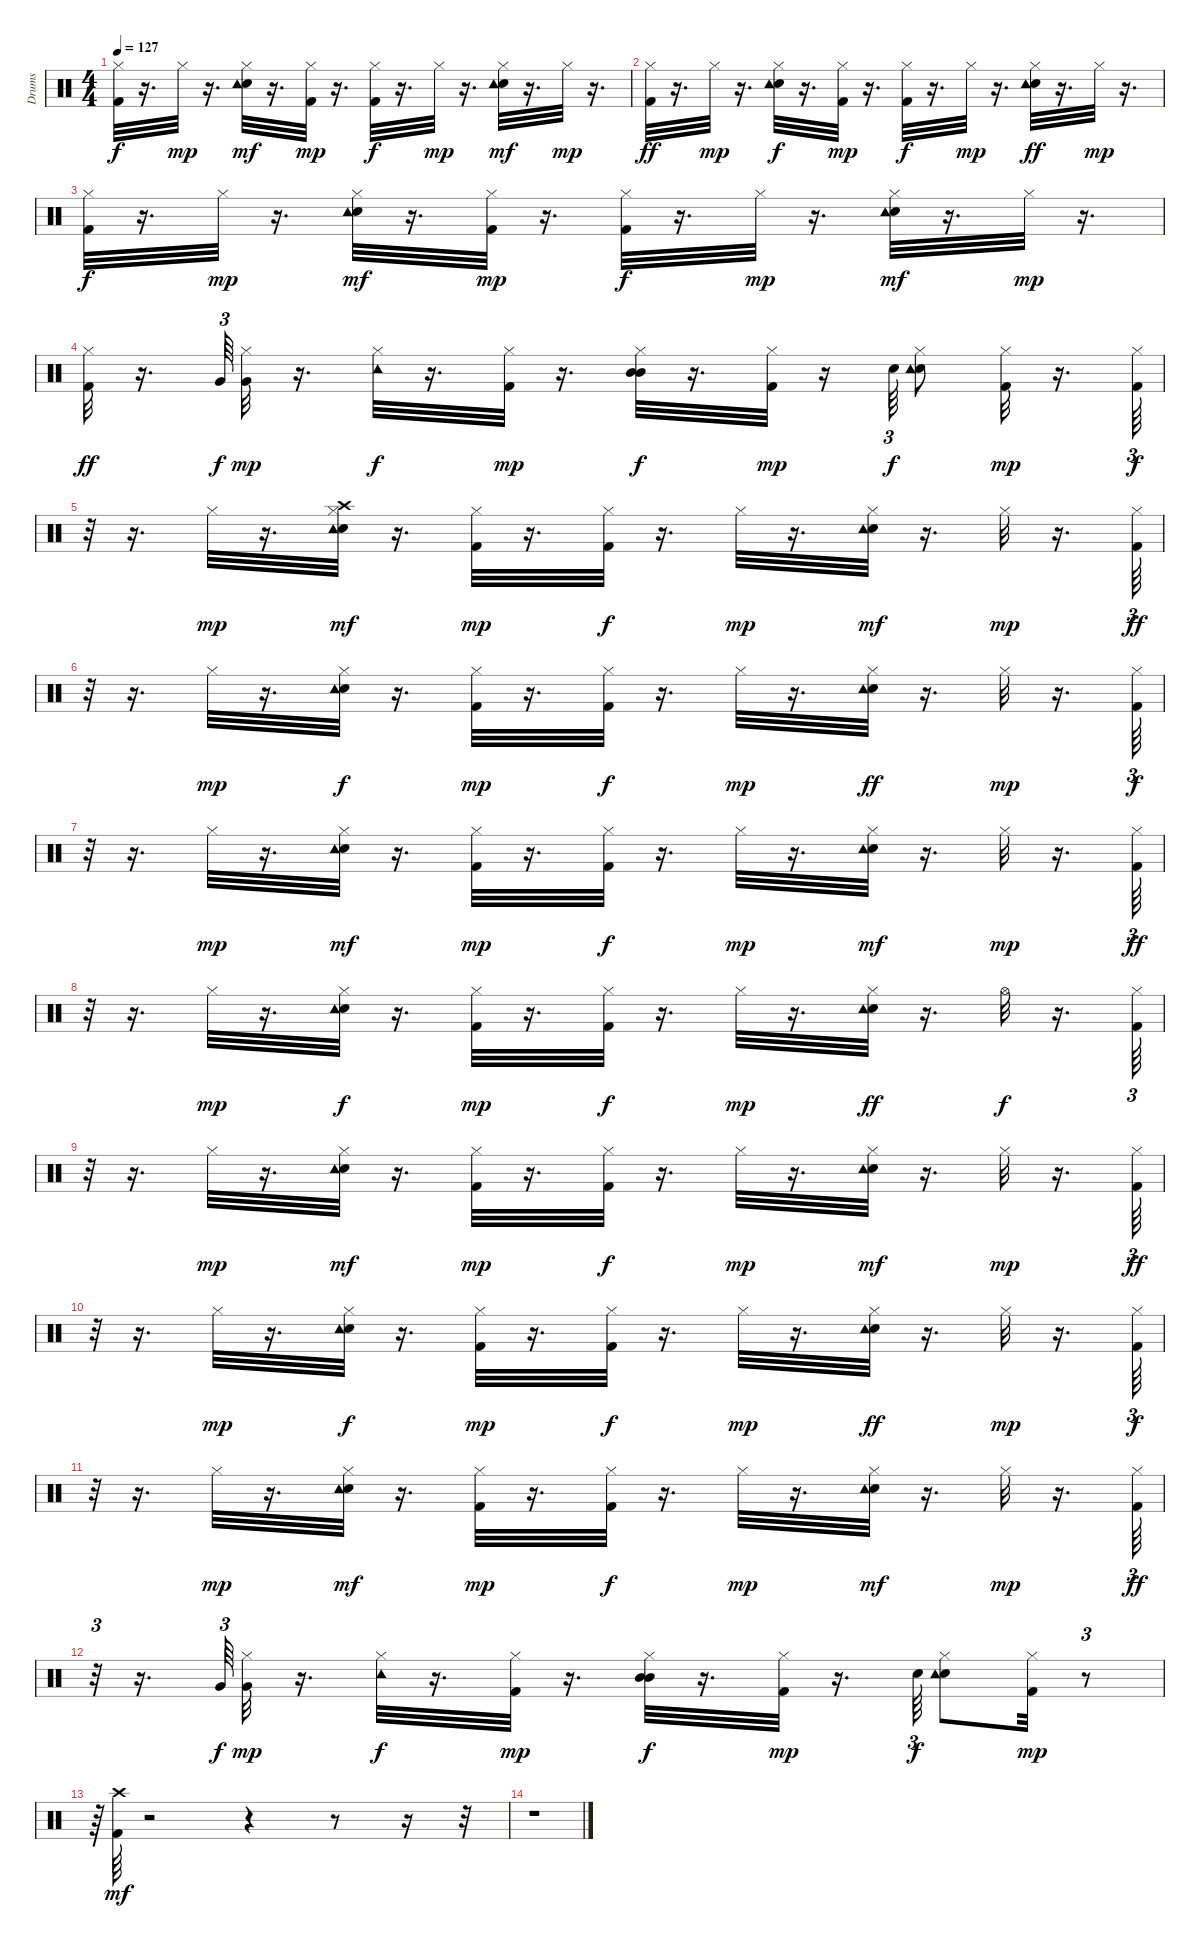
\track ("Drums               " "Drums     ") {instrument percussion}
\staff {score}
\articulation defaults
\ts (4 4)
\tempo 127
\clef neutral
\ks c
("Kick (hit) 2" "Hi-Hat (closed)").32{dy f} r.16{d} "Hi-Hat (closed)".32{dy mp} r.16{d} ("Snare (hit) 2" "Tambourine (hit)" "Hi-Hat (closed)").32{dy mf} r.16{d} ("Kick (hit) 2" "Hi-Hat (closed)").32{dy mp} r.16{d} ("Hi-Hat (closed)" "Kick (hit) 2").32{dy f} r.16{d} "Hi-Hat (closed)".32{dy mp} r.16{d} ("Snare (hit) 2" "Tambourine (hit)" "Hi-Hat (closed)").32{dy mf} r.16{d} "Hi-Hat (closed)".32{dy mp} r.16{d} |
("Kick (hit) 2" "Hi-Hat (closed)").32{dy ff} r.16{d} "Hi-Hat (closed)".32{dy mp} r.16{d} ("Snare (hit) 2" "Tambourine (hit)" "Hi-Hat (closed)").32{dy f} r.16{d} ("Kick (hit) 2" "Hi-Hat (closed)").32{dy mp} r.16{d} ("Kick (hit) 2" "Hi-Hat (closed)").32{dy f} r.16{d} "Hi-Hat (closed)".32{dy mp} r.16{d} ("Snare (hit) 2" "Hi-Hat (closed)" "Tambourine (hit)").32{dy ff} r.16{d} "Hi-Hat (closed)".32{dy mp} r.16{d} |
("Kick (hit) 2" "Hi-Hat (closed)").32{dy f} r.16{d} "Hi-Hat (closed)".32{dy mp} r.16{d} ("Snare (hit) 2" "Hi-Hat (closed)" "Tambourine (hit)").32{dy mf} r.16{d} ("Kick (hit) 2" "Hi-Hat (closed)").32{dy mp} r.16{d} ("Kick (hit) 2" "Hi-Hat (closed)").32{dy f} r.16{d} "Hi-Hat (closed)".32{dy mp} r.16{d} ("Snare (hit) 2" "Tambourine (hit)" "Hi-Hat (closed)").32{dy mf} r.16{d} "Hi-Hat (closed)".32{dy mp} r.16{d} |
("Kick (hit) 2" "Hi-Hat (closed)").32{dy ff} r.16{d} "Very Low Tom (hit)".64{tu (3 2) dy f} ("Hi-Hat (closed)" "Very Low Tom (hit)").32{dy mp} r.16{d} ("Hi-Hat (closed)" "Tambourine (hit)").32{dy f} r.16{d} ("Kick (hit) 2" "Hi-Hat (closed)").32{dy mp} r.16{d} ("Mid Tom (hit)" "Hi-Hat (closed)" "Mid Tom (hit)").32{dy f} r.16{d} ("Kick (hit) 2" "Hi-Hat (closed)").32{dy mp} r.16 "Snare (hit) 2".64{tu (3 2) dy f} ("Snare (hit) 2" "Tambourine (hit)" "Hi-Hat (closed)").8 ("Kick (hit) 2" "Hi-Hat (closed)").32{dy mp} r.16{d} ("Kick (hit) 2" "Hi-Hat (closed)").64{tu (3 2) dy f} |
r.32{tu (3 2)} r.16{d} "Hi-Hat (closed)".32{dy mp} r.16{d} ("Snare (hit) 2" "Hi-Hat (closed)" "Crash high (hit)" "Tambourine (hit)").32{dy mf} r.16{d} ("Kick (hit) 2" "Hi-Hat (closed)").32{dy mp} r.16{d} ("Kick (hit) 2" "Hi-Hat (closed)").32{dy f} r.16{d} "Hi-Hat (closed)".32{dy mp} r.16{d} ("Snare (hit) 2" "Tambourine (hit)" "Hi-Hat (closed)").32{dy mf} r.16{d} "Hi-Hat (closed)".32{dy mp} r.16{d} ("Kick (hit) 2" "Hi-Hat (closed)").64{tu (3 2) dy ff} |
r.32{tu (3 2)} r.16{d} "Hi-Hat (closed)".32{dy mp} r.16{d} ("Snare (hit) 2" "Tambourine (hit)" "Hi-Hat (closed)").32{dy f} r.16{d} ("Kick (hit) 2" "Hi-Hat (closed)").32{dy mp} r.16{d} ("Kick (hit) 2" "Hi-Hat (closed)").32{dy f} r.16{d} "Hi-Hat (closed)".32{dy mp} r.16{d} ("Snare (hit) 2" "Tambourine (hit)" "Hi-Hat (closed)").32{dy ff} r.16{d} "Hi-Hat (closed)".32{dy mp} r.16{d} ("Hi-Hat (closed)" "Kick (hit) 2").64{tu (3 2) dy f} |
r.32{tu (3 2)} r.16{d} "Hi-Hat (closed)".32{dy mp} r.16{d} ("Snare (hit) 2" "Tambourine (hit)" "Hi-Hat (closed)").32{dy mf} r.16{d} ("Kick (hit) 2" "Hi-Hat (closed)").32{dy mp} r.16{d} ("Kick (hit) 2" "Hi-Hat (closed)").32{dy f} r.16{d} "Hi-Hat (closed)".32{dy mp} r.16{d} ("Snare (hit) 2" "Tambourine (hit)" "Hi-Hat (closed)").32{dy mf} r.16{d} "Hi-Hat (closed)".32{dy mp} r.16{d} ("Kick (hit) 2" "Hi-Hat (closed)").64{tu (3 2) dy ff} |
r.32{tu (3 2)} r.16{d} "Hi-Hat (closed)".32{dy mp} r.16{d} ("Snare (hit) 2" "Hi-Hat (closed)" "Tambourine (hit)").32{dy f} r.16{d} ("Hi-Hat (closed)" "Kick (hit) 2").32{dy mp} r.16{d} ("Kick (hit) 2" "Hi-Hat (closed)").32{dy f} r.16{d} "Hi-Hat (closed)".32{dy mp} r.16{d} ("Snare (hit) 2" "Hi-Hat (closed)" "Tambourine (hit)").32{dy ff} r.16{d} "Hi-Hat (open)".32{dy f} r.16{d} ("Kick (hit) 2" "Hi-Hat (closed)").64{tu (3 2)} |
r.32{tu (3 2)} r.16{d} "Hi-Hat (closed)".32{dy mp} r.16{d} ("Snare (hit) 2" "Tambourine (hit)" "Hi-Hat (closed)").32{dy mf} r.16{d} ("Kick (hit) 2" "Hi-Hat (closed)").32{dy mp} r.16{d} ("Kick (hit) 2" "Hi-Hat (closed)").32{dy f} r.16{d} "Hi-Hat (closed)".32{dy mp} r.16{d} ("Hi-Hat (closed)" "Snare (hit) 2" "Tambourine (hit)").32{dy mf} r.16{d} "Hi-Hat (closed)".32{dy mp} r.16{d} ("Kick (hit) 2" "Hi-Hat (closed)").64{tu (3 2) dy ff} |
r.32{tu (3 2)} r.16{d} "Hi-Hat (closed)".32{dy mp} r.16{d} ("Snare (hit) 2" "Tambourine (hit)" "Hi-Hat (closed)").32{dy f} r.16{d} ("Kick (hit) 2" "Hi-Hat (closed)").32{dy mp} r.16{d} ("Kick (hit) 2" "Hi-Hat (closed)").32{dy f} r.16{d} "Hi-Hat (closed)".32{dy mp} r.16{d} ("Snare (hit) 2" "Hi-Hat (closed)" "Tambourine (hit)").32{dy ff} r.16{d} "Hi-Hat (closed)".32{dy mp} r.16{d} ("Kick (hit) 2" "Hi-Hat (closed)").64{tu (3 2) dy f} |
r.32{tu (3 2)} r.16{d} "Hi-Hat (closed)".32{dy mp} r.16{d} ("Snare (hit) 2" "Tambourine (hit)" "Hi-Hat (closed)").32{dy mf} r.16{d} ("Kick (hit) 2" "Hi-Hat (closed)").32{dy mp} r.16{d} ("Kick (hit) 2" "Hi-Hat (closed)").32{dy f} r.16{d} "Hi-Hat (closed)".32{dy mp} r.16{d} ("Snare (hit) 2" "Tambourine (hit)" "Hi-Hat (closed)").32{dy mf} r.16{d} "Hi-Hat (closed)".32{dy mp} r.16{d} ("Kick (hit) 2" "Hi-Hat (closed)").64{tu (3 2) dy ff} |
r.32{tu (3 2)} r.16{d} "Very Low Tom (hit)".64{tu (3 2) dy f} ("Hi-Hat (closed)" "Very Low Tom (hit)").32{dy mp} r.16{d} ("Tambourine (hit)" "Hi-Hat (closed)").32{dy f} r.16{d} ("Kick (hit) 2" "Hi-Hat (closed)").32{dy mp} r.16{d} ("Hi-Hat (closed)" "Mid Tom (hit)" "Mid Tom (hit)").32{dy f} r.16{d} ("Kick (hit) 2" "Hi-Hat (closed)").32{dy mp} r.16{d} "Snare (hit) 2".64{tu (3 2) dy f} ("Snare (hit) 2" "Tambourine (hit)" "Hi-Hat (closed)").8 ("Kick (hit) 2" "Hi-Hat (closed)").32{dy mp} r.8{tu (3 2)} |
r.64{tu (3 2)} ("Kick (hit) 2" "Crash high (hit)").64{dy mf} r.2 r.4 r.8 r.16 r.32 |
r.1
